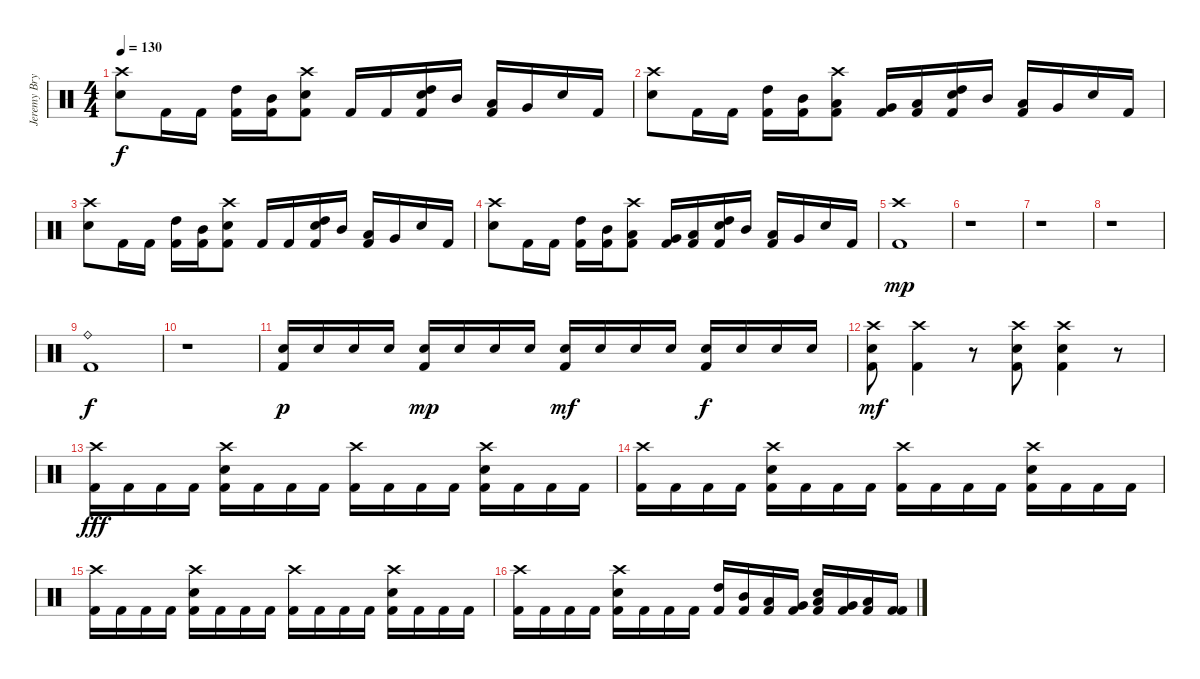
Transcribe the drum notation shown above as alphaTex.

\track ("Jeremy Bryan - Drums" "Jeremy Bry") {instrument percussion}
\staff {score}
\articulation defaults
\ts (4 4)
\tempo 130
\clef neutral
\ks c
("Crash high (hit)" "Electric Snare (hit)").8{dy f} "Kick (hit) 2".16 "Kick (hit) 2".16 ("High Tom (hit)" "Kick (hit) 2").16 ("Mid Tom (hit)" "Kick (hit) 2").16 ("Crash high (hit)" "Electric Snare (hit)" "Kick (hit) 2").8 "Kick (hit) 2".16 "Kick (hit) 2".16 ("High Tom (hit)" "Electric Snare (hit)" "Kick (hit) 2").16 "Mid Tom (hit)".16 ("Low Tom (hit)" "Kick (hit) 2").16 "Very Low Tom (hit)".16 "Electric Snare (hit)".16 "Kick (hit) 2".16 |
("Crash high (hit)" "Electric Snare (hit)").8 "Kick (hit) 2".16 "Kick (hit) 2".16 ("High Tom (hit)" "Kick (hit) 2").16 ("Mid Tom (hit)" "Kick (hit) 2").16 ("Crash high (hit)" "Low Floor Tom (hit)" "Kick (hit) 2").8 ("Very Low Tom (hit)" "Kick (hit) 2").16 ("Low Tom (hit)" "Kick (hit) 2").16 ("High Tom (hit)" "Electric Snare (hit)" "Kick (hit) 2").16 "Mid Tom (hit)".16 ("Low Tom (hit)" "Kick (hit) 2").16 "Very Low Tom (hit)".16 "Electric Snare (hit)".16 "Kick (hit) 2".16 |
("Crash high (hit)" "Electric Snare (hit)").8 "Kick (hit) 2".16 "Kick (hit) 2".16 ("High Tom (hit)" "Kick (hit) 2").16 ("Mid Tom (hit)" "Kick (hit) 2").16 ("Crash high (hit)" "Electric Snare (hit)" "Kick (hit) 2").8 "Kick (hit) 2".16 "Kick (hit) 2".16 ("High Tom (hit)" "Electric Snare (hit)" "Kick (hit) 2").16 "Mid Tom (hit)".16 ("Low Tom (hit)" "Kick (hit) 2").16 "Very Low Tom (hit)".16 "Electric Snare (hit)".16 "Kick (hit) 2".16 |
("Crash high (hit)" "Electric Snare (hit)").8 "Kick (hit) 2".16 "Kick (hit) 2".16 ("High Tom (hit)" "Kick (hit) 2").16 ("Mid Tom (hit)" "Kick (hit) 2").16 ("Crash high (hit)" "Low Floor Tom (hit)" "Kick (hit) 2").8 ("Very Low Tom (hit)" "Kick (hit) 2").16 ("Low Tom (hit)" "Kick (hit) 2").16 ("High Tom (hit)" "Electric Snare (hit)" "Kick (hit) 2").16 "Mid Tom (hit)".16 ("Low Tom (hit)" "Kick (hit) 2").16 "Very Low Tom (hit)".16 "Electric Snare (hit)".16 "Kick (hit) 2".16 |
("Crash high (hit)" "Kick (hit) 2").1{dy mp} |
r.1 |
r.1 |
r.1 |
("Ride (bell)" "Kick (hit) 2").1{dy f} |
r.1 |
("Electric Snare (hit)" "Kick (hit) 2").16{dy p} "Electric Snare (hit)".16 "Electric Snare (hit)".16 "Electric Snare (hit)".16 ("Electric Snare (hit)" "Kick (hit) 2").16{dy mp} "Electric Snare (hit)".16 "Electric Snare (hit)".16 "Electric Snare (hit)".16 ("Electric Snare (hit)" "Kick (hit) 2").16{dy mf} "Electric Snare (hit)".16 "Electric Snare (hit)".16 "Electric Snare (hit)".16 ("Electric Snare (hit)" "Kick (hit) 2").16{dy f} "Electric Snare (hit)".16 "Electric Snare (hit)".16 "Electric Snare (hit)".16 |
("Crash high (hit)" "Electric Snare (hit)" "Kick (hit) 2").8{dy mf} ("Crash high (hit)" "Kick (hit) 2").4 r.8 ("Crash high (hit)" "Electric Snare (hit)" "Kick (hit) 2").8 ("Crash high (hit)" "Electric Snare (hit)" "Kick (hit) 2").4 r.8 |
("Crash high (hit)" "Kick (hit) 2").16{dy fff} "Kick (hit) 2".16 "Kick (hit) 2".16 "Kick (hit) 2".16 ("Crash high (hit)" "Electric Snare (hit)" "Kick (hit) 2").16 "Kick (hit) 2".16 "Kick (hit) 2".16 "Kick (hit) 2".16 ("Crash high (hit)" "Kick (hit) 2").16 "Kick (hit) 2".16 "Kick (hit) 2".16 "Kick (hit) 2".16 ("Crash high (hit)" "Electric Snare (hit)" "Kick (hit) 2").16 "Kick (hit) 2".16 "Kick (hit) 2".16 "Kick (hit) 2".16 |
("Crash high (hit)" "Kick (hit) 2").16 "Kick (hit) 2".16 "Kick (hit) 2".16 "Kick (hit) 2".16 ("Crash high (hit)" "Electric Snare (hit)" "Kick (hit) 2").16 "Kick (hit) 2".16 "Kick (hit) 2".16 "Kick (hit) 2".16 ("Crash high (hit)" "Kick (hit) 2").16 "Kick (hit) 2".16 "Kick (hit) 2".16 "Kick (hit) 2".16 ("Crash high (hit)" "Electric Snare (hit)" "Kick (hit) 2").16 "Kick (hit) 2".16 "Kick (hit) 2".16 "Kick (hit) 2".16 |
("Crash high (hit)" "Kick (hit) 2").16 "Kick (hit) 2".16 "Kick (hit) 2".16 "Kick (hit) 2".16 ("Crash high (hit)" "Electric Snare (hit)" "Kick (hit) 2").16 "Kick (hit) 2".16 "Kick (hit) 2".16 "Kick (hit) 2".16 ("Crash high (hit)" "Kick (hit) 2").16 "Kick (hit) 2".16 "Kick (hit) 2".16 "Kick (hit) 2".16 ("Crash high (hit)" "Electric Snare (hit)" "Kick (hit) 2").16 "Kick (hit) 2".16 "Kick (hit) 2".16 "Kick (hit) 2".16 |
("Crash high (hit)" "Kick (hit) 2").16 "Kick (hit) 2".16 "Kick (hit) 2".16 "Kick (hit) 2".16 ("Crash high (hit)" "Electric Snare (hit)" "Kick (hit) 2").16 "Kick (hit) 2".16 "Kick (hit) 2".16 "Kick (hit) 2".16 ("High Tom (hit)" "Kick (hit) 2").16 ("Mid Tom (hit)" "Kick (hit) 2").16 ("Low Tom (hit)" "Kick (hit) 2").16 ("Very Low Tom (hit)" "Kick (hit) 2").16 ("Low Tom (hit)" "Electric Snare (hit)" "Kick (hit) 2").16 ("Very Low Tom (hit)" "Kick (hit) 2").16 ("Low Floor Tom (hit)" "Kick (hit) 2").16 ("Kick (hit) 2" "Kick (hit) 2").16
